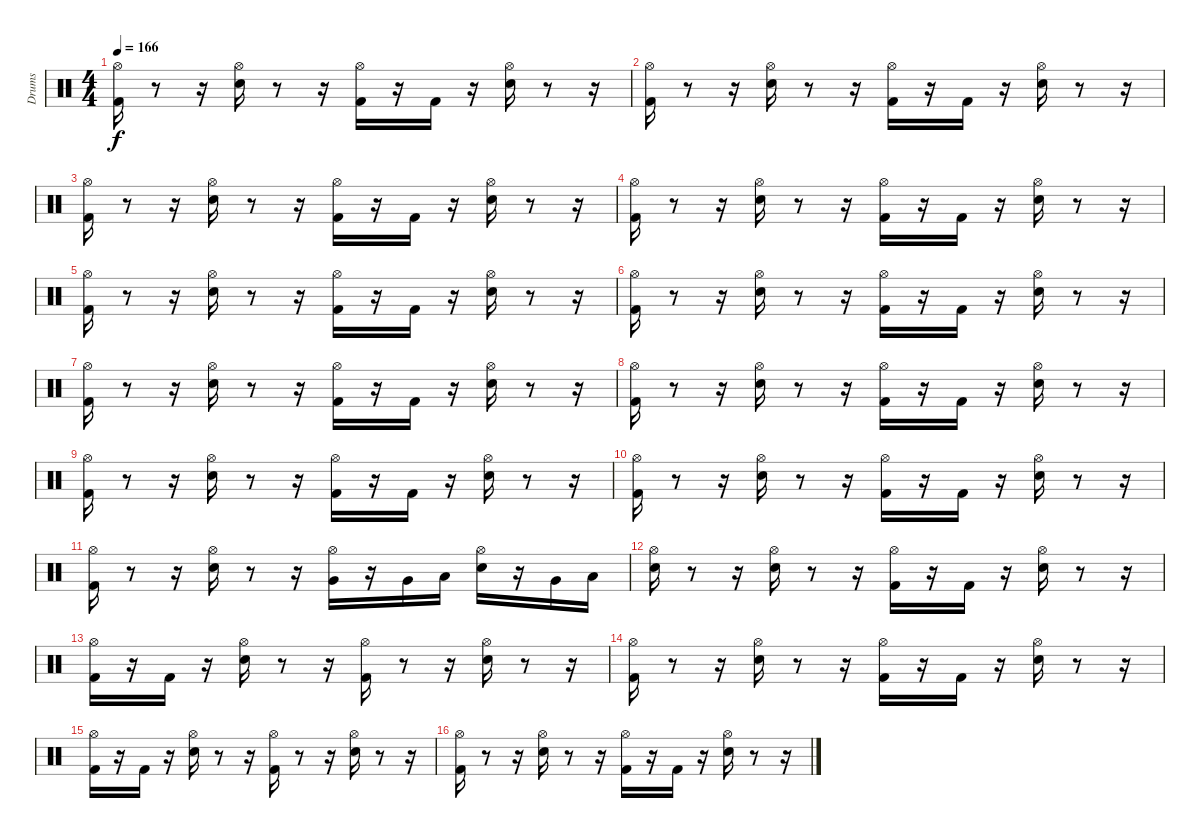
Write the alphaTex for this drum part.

\track ("Drums" "Drums") {instrument percussion}
\staff {score}
\articulation defaults
\ts (4 4)
\tempo 166
\clef neutral
\ks c
("Kick (hit) 2" "Hi-Hat (open)").16{dy f} r.8 r.16 ("Hi-Hat (open)" "Snare (hit) 2").16 r.8 r.16 ("Hi-Hat (open)" "Kick (hit) 2").16 r.16 "Kick (hit) 2".16 r.16 ("Hi-Hat (open)" "Snare (hit) 2").16 r.8 r.16 |
("Kick (hit) 2" "Hi-Hat (open)").16 r.8 r.16 ("Hi-Hat (open)" "Snare (hit) 2").16 r.8 r.16 ("Hi-Hat (open)" "Kick (hit) 2").16 r.16 "Kick (hit) 2".16 r.16 ("Hi-Hat (open)" "Snare (hit) 2").16 r.8 r.16 |
("Kick (hit) 2" "Hi-Hat (open)").16 r.8 r.16 ("Hi-Hat (open)" "Snare (hit) 2").16 r.8 r.16 ("Hi-Hat (open)" "Kick (hit) 2").16 r.16 "Kick (hit) 2".16 r.16 ("Hi-Hat (open)" "Snare (hit) 2").16 r.8 r.16 |
("Kick (hit) 2" "Hi-Hat (open)").16 r.8 r.16 ("Hi-Hat (open)" "Snare (hit) 2").16 r.8 r.16 ("Hi-Hat (open)" "Kick (hit) 2").16 r.16 "Kick (hit) 2".16 r.16 ("Hi-Hat (open)" "Snare (hit) 2").16 r.8 r.16 |
("Kick (hit) 2" "Hi-Hat (open)").16 r.8 r.16 ("Hi-Hat (open)" "Snare (hit) 2").16 r.8 r.16 ("Hi-Hat (open)" "Kick (hit) 2").16 r.16 "Kick (hit) 2".16 r.16 ("Hi-Hat (open)" "Snare (hit) 2").16 r.8 r.16 |
("Kick (hit) 2" "Hi-Hat (open)").16 r.8 r.16 ("Hi-Hat (open)" "Snare (hit) 2").16 r.8 r.16 ("Hi-Hat (open)" "Kick (hit) 2").16 r.16 "Kick (hit) 2".16 r.16 ("Hi-Hat (open)" "Snare (hit) 2").16 r.8 r.16 |
("Kick (hit) 2" "Hi-Hat (open)").16 r.8 r.16 ("Hi-Hat (open)" "Snare (hit) 2").16 r.8 r.16 ("Hi-Hat (open)" "Kick (hit) 2").16 r.16 "Kick (hit) 2".16 r.16 ("Hi-Hat (open)" "Snare (hit) 2").16 r.8 r.16 |
("Kick (hit) 2" "Hi-Hat (open)").16 r.8 r.16 ("Hi-Hat (open)" "Snare (hit) 2").16 r.8 r.16 ("Hi-Hat (open)" "Kick (hit) 2").16 r.16 "Kick (hit) 2".16 r.16 ("Hi-Hat (open)" "Snare (hit) 2").16 r.8 r.16 |
("Kick (hit) 2" "Hi-Hat (open)").16 r.8 r.16 ("Hi-Hat (open)" "Snare (hit) 2").16 r.8 r.16 ("Hi-Hat (open)" "Kick (hit) 2").16 r.16 "Kick (hit) 2".16 r.16 ("Hi-Hat (open)" "Snare (hit) 2").16 r.8 r.16 |
("Kick (hit) 2" "Hi-Hat (open)").16 r.8 r.16 ("Hi-Hat (open)" "Snare (hit) 2").16 r.8 r.16 ("Hi-Hat (open)" "Kick (hit) 2").16 r.16 "Kick (hit) 2".16 r.16 ("Hi-Hat (open)" "Snare (hit) 2").16 r.8 r.16 |
("Kick (hit) 2" "Hi-Hat (open)").16 r.8 r.16 ("Hi-Hat (open)" "Snare (hit) 2").16 r.8 r.16 ("Very Low Tom (hit)" "Hi-Hat (open)").16 r.16 "Very Low Tom (hit)".16 "Low Floor Tom (hit)".16 ("Electric Snare (hit)" "Hi-Hat (open)").16 r.16 "Very Low Tom (hit)".16 "Low Floor Tom (hit)".16 |
("Hi-Hat (open)" "Electric Snare (hit)").16 r.8 r.16 ("Snare (hit) 2" "Hi-Hat (open)").16 r.8 r.16 ("Kick (hit) 2" "Hi-Hat (open)").16 r.16 "Kick (hit) 2".16 r.16 ("Hi-Hat (open)" "Snare (hit) 2").16 r.8 r.16 |
("Hi-Hat (open)" "Kick (hit) 2").16 r.16 "Kick (hit) 2".16 r.16 ("Snare (hit) 2" "Hi-Hat (open)").16 r.8 r.16 ("Hi-Hat (open)" "Kick (hit) 2").16 r.8 r.16 ("Hi-Hat (open)" "Snare (hit) 2").16 r.8 r.16 |
("Hi-Hat (open)" "Kick (hit) 2").16 r.8 r.16 ("Snare (hit) 2" "Hi-Hat (open)").16 r.8 r.16 ("Kick (hit) 2" "Hi-Hat (open)").16 r.16 "Kick (hit) 2".16 r.16 ("Hi-Hat (open)" "Snare (hit) 2").16 r.8 r.16 |
("Hi-Hat (open)" "Kick (hit) 2").16 r.16 "Kick (hit) 2".16 r.16 ("Snare (hit) 2" "Hi-Hat (open)").16 r.8 r.16 ("Hi-Hat (open)" "Kick (hit) 2").16 r.8 r.16 ("Hi-Hat (open)" "Snare (hit) 2").16 r.8 r.16 |
("Hi-Hat (open)" "Kick (hit) 2").16 r.8 r.16 ("Snare (hit) 2" "Hi-Hat (open)").16 r.8 r.16 ("Kick (hit) 2" "Hi-Hat (open)").16 r.16 "Kick (hit) 2".16 r.16 ("Hi-Hat (open)" "Snare (hit) 2").16 r.8 r.16
